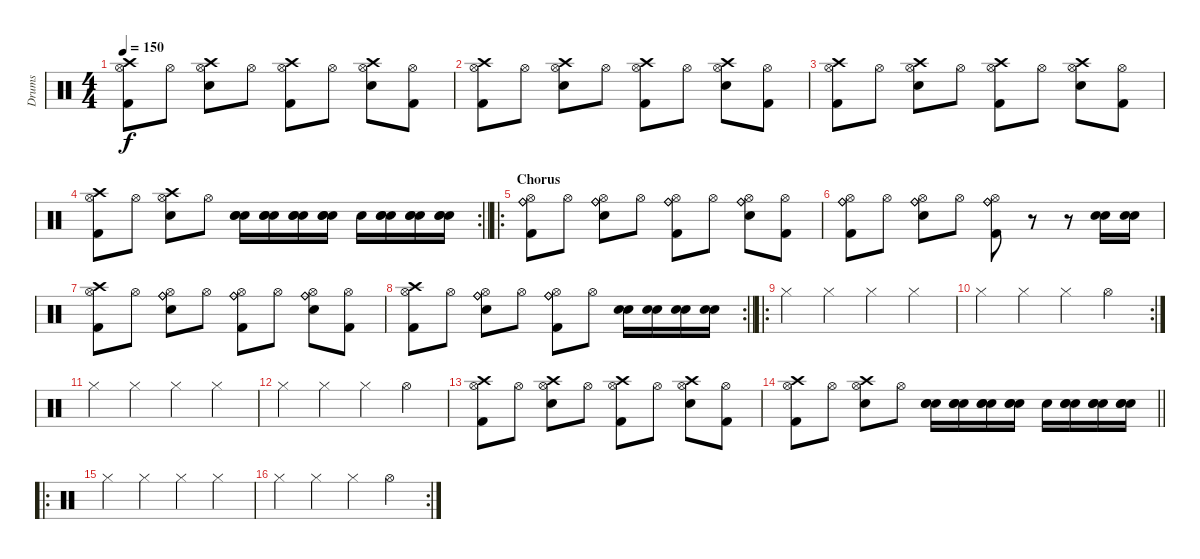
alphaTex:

\track ("Drums" "Drums") {instrument percussion}
\staff {score}
\articulation defaults
\ts (4 4)
\tempo 150
\clef neutral
\ks c
("Crash high (hit)" "Hi-Hat (open)" "Kick (hit) 2").8{dy f} "Hi-Hat (open)".8 ("Crash high (hit)" "Hi-Hat (open)" "Electric Snare (hit)").8 "Hi-Hat (open)".8 ("Crash high (hit)" "Hi-Hat (open)" "Kick (hit) 2").8 "Hi-Hat (open)".8 ("Crash high (hit)" "Hi-Hat (open)" "Electric Snare (hit)").8 ("Hi-Hat (open)" "Kick (hit) 2").8 |
("Crash high (hit)" "Hi-Hat (open)" "Kick (hit) 2").8 "Hi-Hat (open)".8 ("Crash high (hit)" "Hi-Hat (open)" "Electric Snare (hit)").8 "Hi-Hat (open)".8 ("Crash high (hit)" "Hi-Hat (open)" "Kick (hit) 2").8 "Hi-Hat (open)".8 ("Crash high (hit)" "Hi-Hat (open)" "Electric Snare (hit)").8 ("Hi-Hat (open)" "Kick (hit) 2").8 |
("Crash high (hit)" "Hi-Hat (open)" "Kick (hit) 2").8 "Hi-Hat (open)".8 ("Crash high (hit)" "Hi-Hat (open)" "Electric Snare (hit)").8 "Hi-Hat (open)".8 ("Crash high (hit)" "Hi-Hat (open)" "Kick (hit) 2").8 "Hi-Hat (open)".8 ("Crash high (hit)" "Hi-Hat (open)" "Electric Snare (hit)").8 ("Hi-Hat (open)" "Kick (hit) 2").8 |
\rc 2
\barLineRight lightlight
("Crash high (hit)" "Hi-Hat (open)" "Kick (hit) 2").8 "Hi-Hat (open)".8 ("Crash high (hit)" "Hi-Hat (open)" "Electric Snare (hit)").8 "Hi-Hat (open)".8 ("Snare (hit) 2" "Snare (hit) 2" "Electric Snare (hit)").16 ("Snare (hit) 2" "Snare (hit) 2" "Electric Snare (hit)").16 ("Snare (hit) 2" "Snare (hit) 2" "Electric Snare (hit)").16 ("Snare (hit) 2" "Snare (hit) 2" "Electric Snare (hit)").16 "Electric Snare (hit)".16 ("Snare (hit) 2" "Snare (hit) 2" "Electric Snare (hit)").16 ("Snare (hit) 2" "Snare (hit) 2" "Electric Snare (hit)").16 ("Snare (hit) 2" "Snare (hit) 2" "Electric Snare (hit)").16 |
\ro
\section ("" "Chorus")
("Ride (bell)" "Ride (bell)" "Hi-Hat (open)" "Kick (hit) 2").8 "Hi-Hat (open)".8 ("Ride (bell)" "Ride (bell)" "Hi-Hat (open)" "Electric Snare (hit)").8 "Hi-Hat (open)".8 ("Ride (bell)" "Ride (bell)" "Hi-Hat (open)" "Kick (hit) 2").8 "Hi-Hat (open)".8 ("Ride (bell)" "Ride (bell)" "Hi-Hat (open)" "Electric Snare (hit)").8 ("Hi-Hat (open)" "Kick (hit) 2").8 |
("Ride (bell)" "Ride (bell)" "Hi-Hat (open)" "Kick (hit) 2").8 "Hi-Hat (open)".8 ("Ride (bell)" "Ride (bell)" "Hi-Hat (open)" "Electric Snare (hit)").8 "Hi-Hat (open)".8 ("Ride (bell)" "Ride (bell)" "Hi-Hat (open)" "Kick (hit) 2").8 r.8 r.8 ("Electric Snare (hit)" "Electric Snare (hit)").16 ("Snare (hit) 2" "Snare (hit) 2").16 |
("Crash high (hit)" "Hi-Hat (open)" "Kick (hit) 2").8 "Hi-Hat (open)".8 ("Ride (bell)" "Ride (bell)" "Hi-Hat (open)" "Electric Snare (hit)").8 "Hi-Hat (open)".8 ("Ride (bell)" "Ride (bell)" "Hi-Hat (open)" "Kick (hit) 2").8 "Hi-Hat (open)".8 ("Ride (bell)" "Ride (bell)" "Hi-Hat (open)" "Electric Snare (hit)").8 ("Hi-Hat (open)" "Kick (hit) 2").8 |
\rc 2
\barLineRight lightlight
("Crash high (hit)" "Hi-Hat (open)" "Kick (hit) 2").8 "Hi-Hat (open)".8 ("Ride (bell)" "Ride (bell)" "Hi-Hat (open)" "Electric Snare (hit)").8 "Hi-Hat (open)".8 ("Ride (bell)" "Ride (bell)" "Hi-Hat (open)" "Kick (hit) 2").8 "Hi-Hat (open)".8 ("Electric Snare (hit)" "Electric Snare (hit)").16 ("Electric Snare (hit)" "Electric Snare (hit)").16 ("Electric Snare (hit)" "Electric Snare (hit)").16 ("Electric Snare (hit)" "Electric Snare (hit)").16 |
\ro "Hi-Hat (closed)".4 "Hi-Hat (closed)".4 "Hi-Hat (closed)".4 "Hi-Hat (closed)".4
|
\rc 2 "Hi-Hat (closed)".4 "Hi-Hat (closed)".4 "Hi-Hat (closed)".4 "Hi-Hat (open)".4
|
"Hi-Hat (closed)".4 "Hi-Hat (closed)".4 "Hi-Hat (closed)".4 "Hi-Hat (closed)".4 |
"Hi-Hat (closed)".4 "Hi-Hat (closed)".4 "Hi-Hat (closed)".4 "Hi-Hat (open)".4 |
("Crash high (hit)" "Hi-Hat (open)" "Kick (hit) 2").8 "Hi-Hat (open)".8 ("Crash high (hit)" "Hi-Hat (open)" "Electric Snare (hit)").8 "Hi-Hat (open)".8 ("Crash high (hit)" "Hi-Hat (open)" "Kick (hit) 2").8 "Hi-Hat (open)".8 ("Crash high (hit)" "Hi-Hat (open)" "Electric Snare (hit)").8 ("Hi-Hat (open)" "Kick (hit) 2").8 |
\barLineRight lightlight
("Crash high (hit)" "Hi-Hat (open)" "Kick (hit) 2").8 "Hi-Hat (open)".8 ("Crash high (hit)" "Hi-Hat (open)" "Electric Snare (hit)").8 "Hi-Hat (open)".8 ("Snare (hit) 2" "Snare (hit) 2" "Electric Snare (hit)").16 ("Snare (hit) 2" "Snare (hit) 2" "Electric Snare (hit)").16 ("Snare (hit) 2" "Snare (hit) 2" "Electric Snare (hit)").16 ("Snare (hit) 2" "Snare (hit) 2" "Electric Snare (hit)").16 "Electric Snare (hit)".16 ("Snare (hit) 2" "Snare (hit) 2" "Electric Snare (hit)").16 ("Snare (hit) 2" "Snare (hit) 2" "Electric Snare (hit)").16 ("Snare (hit) 2" "Snare (hit) 2" "Electric Snare (hit)").16 |
\ro "Hi-Hat (closed)".4 "Hi-Hat (closed)".4 "Hi-Hat (closed)".4 "Hi-Hat (closed)".4
|
\rc 2 "Hi-Hat (closed)".4 "Hi-Hat (closed)".4 "Hi-Hat (closed)".4 "Hi-Hat (open)".4
